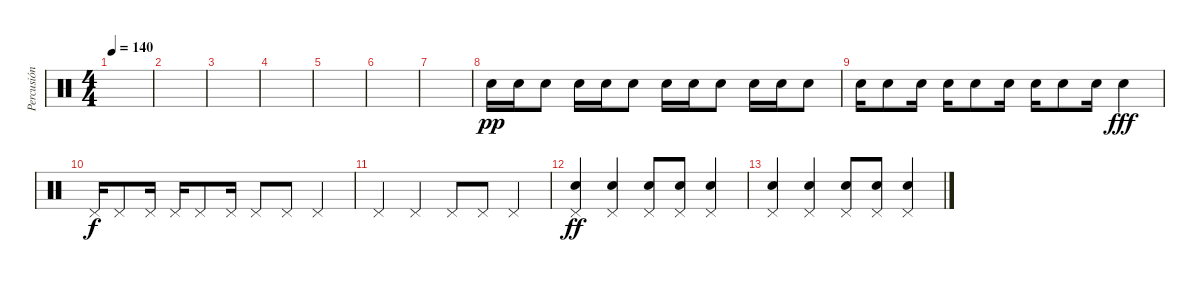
\track ("Percusión Fredy Caldas" "Percusión ") {instrument percussion}
\staff {score}
\articulation defaults
\ts (4 4)
\tempo 140
\clef neutral
\ks c
|
|
|
|
|
|
|
"Snare (hit) 2".16{dy pp} "Snare (hit) 2".16 "Snare (hit) 2".8 "Snare (hit) 2".16 "Snare (hit) 2".16 "Snare (hit) 2".8 "Snare (hit) 2".16 "Snare (hit) 2".16 "Snare (hit) 2".8 "Snare (hit) 2".16 "Snare (hit) 2".16 "Snare (hit) 2".8 |
"Snare (hit) 2".16 "Snare (hit) 2".8 "Snare (hit) 2".16 "Snare (hit) 2".16 "Snare (hit) 2".8 "Snare (hit) 2".16 "Snare (hit) 2".16 "Snare (hit) 2".8 "Snare (hit) 2".16 "Snare (hit) 2".4{dy fff} |
"Pedal Hi-Hat (hit)".16{dy f} "Pedal Hi-Hat (hit)".8 "Pedal Hi-Hat (hit)".16 "Pedal Hi-Hat (hit)".16 "Pedal Hi-Hat (hit)".8 "Pedal Hi-Hat (hit)".16 "Pedal Hi-Hat (hit)".8 "Pedal Hi-Hat (hit)".8 "Pedal Hi-Hat (hit)".4 |
"Pedal Hi-Hat (hit)".4 "Pedal Hi-Hat (hit)".4 "Pedal Hi-Hat (hit)".8 "Pedal Hi-Hat (hit)".8 "Pedal Hi-Hat (hit)".4 |
("Electric Snare (hit)" "Pedal Hi-Hat (hit)").4{dy ff} ("Electric Snare (hit)" "Pedal Hi-Hat (hit)").4 ("Electric Snare (hit)" "Pedal Hi-Hat (hit)").8 ("Electric Snare (hit)" "Pedal Hi-Hat (hit)").8 ("Electric Snare (hit)" "Pedal Hi-Hat (hit)").4 |
("Electric Snare (hit)" "Pedal Hi-Hat (hit)").4 ("Electric Snare (hit)" "Pedal Hi-Hat (hit)").4 ("Electric Snare (hit)" "Pedal Hi-Hat (hit)").8 ("Electric Snare (hit)" "Pedal Hi-Hat (hit)").8 ("Electric Snare (hit)" "Pedal Hi-Hat (hit)").4
